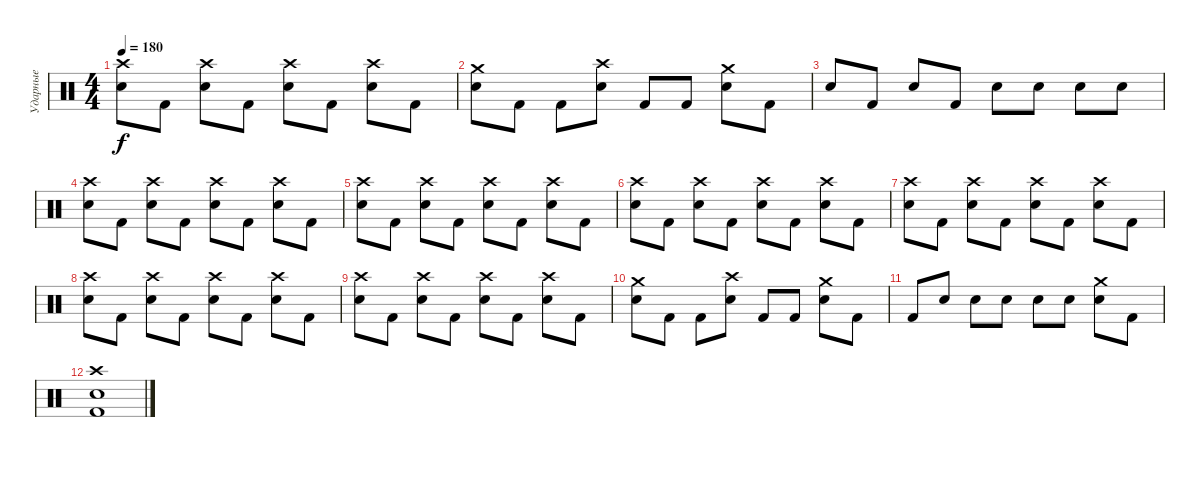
\track ("Ударные" "Ударные") {instrument percussion}
\staff {score}
\articulation defaults
\ts (4 4)
\tempo 180
\clef neutral
\ks c
("Crash high (hit)" "Snare (hit) 2").8{dy f} "Kick (hit) 2".8 ("Crash high (hit)" "Snare (hit) 2").8 "Kick (hit) 2".8 ("Crash high (hit)" "Snare (hit) 2").8 "Kick (hit) 2".8 ("Crash high (hit)" "Snare (hit) 2").8 "Kick (hit) 2".8 |
("Crash medium (hit)" "Snare (hit) 2").8 "Kick (hit) 2".8 "Kick (hit) 2".8 ("Crash high (hit)" "Snare (hit) 2").8 "Kick (hit) 2".8 "Kick (hit) 2".8 ("Crash medium (hit)" "Snare (hit) 2").8 "Kick (hit) 2".8 |
"Snare (hit) 2".8 "Kick (hit) 2".8 "Snare (hit) 2".8 "Kick (hit) 2".8 "Snare (hit) 2".8 "Snare (hit) 2".8 "Snare (hit) 2".8 "Snare (hit) 2".8 |
("Crash high (hit)" "Snare (hit) 2").8 "Kick (hit) 2".8 ("Crash high (hit)" "Snare (hit) 2").8 "Kick (hit) 2".8 ("Crash high (hit)" "Snare (hit) 2").8 "Kick (hit) 2".8 ("Crash high (hit)" "Snare (hit) 2").8 "Kick (hit) 2".8 |
("Crash high (hit)" "Snare (hit) 2").8 "Kick (hit) 2".8 ("Crash high (hit)" "Snare (hit) 2").8 "Kick (hit) 2".8 ("Crash high (hit)" "Snare (hit) 2").8 "Kick (hit) 2".8 ("Crash high (hit)" "Snare (hit) 2").8 "Kick (hit) 2".8 |
("Crash high (hit)" "Snare (hit) 2").8 "Kick (hit) 2".8 ("Crash high (hit)" "Snare (hit) 2").8 "Kick (hit) 2".8 ("Crash high (hit)" "Snare (hit) 2").8 "Kick (hit) 2".8 ("Crash high (hit)" "Snare (hit) 2").8 "Kick (hit) 2".8 |
("Crash high (hit)" "Snare (hit) 2").8 "Kick (hit) 2".8 ("Crash high (hit)" "Snare (hit) 2").8 "Kick (hit) 2".8 ("Crash high (hit)" "Snare (hit) 2").8 "Kick (hit) 2".8 ("Crash high (hit)" "Snare (hit) 2").8 "Kick (hit) 2".8 |
("Crash high (hit)" "Snare (hit) 2").8 "Kick (hit) 2".8 ("Crash high (hit)" "Snare (hit) 2").8 "Kick (hit) 2".8 ("Crash high (hit)" "Snare (hit) 2").8 "Kick (hit) 2".8 ("Crash high (hit)" "Snare (hit) 2").8 "Kick (hit) 2".8 |
("Crash high (hit)" "Snare (hit) 2").8 "Kick (hit) 2".8 ("Crash high (hit)" "Snare (hit) 2").8 "Kick (hit) 2".8 ("Crash high (hit)" "Snare (hit) 2").8 "Kick (hit) 2".8 ("Crash high (hit)" "Snare (hit) 2").8 "Kick (hit) 2".8 |
("Crash medium (hit)" "Snare (hit) 2").8 "Kick (hit) 2".8 "Kick (hit) 2".8 ("Crash high (hit)" "Snare (hit) 2").8 "Kick (hit) 2".8 "Kick (hit) 2".8 ("Crash medium (hit)" "Snare (hit) 2").8 "Kick (hit) 2".8 |
"Kick (hit) 2".8 "Snare (hit) 2".8 "Snare (hit) 2".8 "Snare (hit) 2".8 "Snare (hit) 2".8 "Snare (hit) 2".8 ("Crash medium (hit)" "Snare (hit) 2").8 "Kick (hit) 2".8 |
("Crash high (hit)" "Snare (hit) 2" "Kick (hit) 2").1
